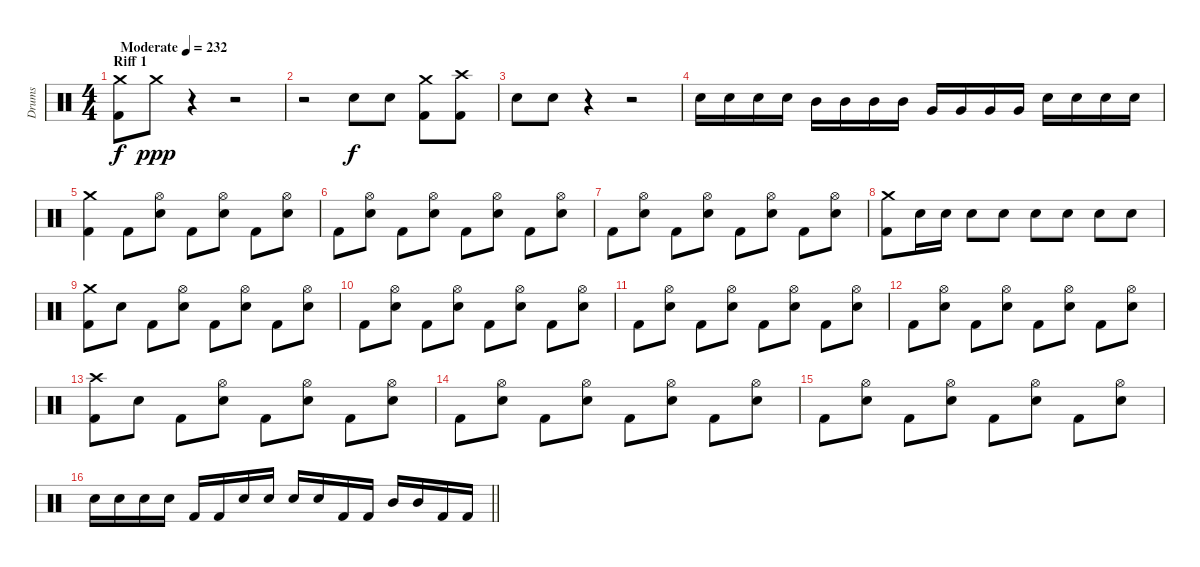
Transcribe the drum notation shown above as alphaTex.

\track ("Drums" "Drums") {instrument percussion}
\staff {score}
\articulation defaults
\ts (4 4)
\section ("" "Riff 1")
\tempo (232 "Moderate")
\clef neutral
\ks c
("Crash medium (hit)" "Kick (hit) 2").8{dy f} "Crash medium (hit)".8{dy ppp} r.4 r.2 |
r.2 "Electric Snare (hit)".8{dy f} "Electric Snare (hit)".8 ("Crash medium (hit)" "Kick (hit) 2").8 ("Crash high (hit)" "Kick (hit) 2").8 |
"Electric Snare (hit)".8 "Electric Snare (hit)".8 r.4 r.2 |
"Electric Snare (hit)".16 "Electric Snare (hit)".16 "Electric Snare (hit)".16 "Electric Snare (hit)".16 "Mid Tom (hit)".16 "Mid Tom (hit)".16 "Mid Tom (hit)".16 "Mid Tom (hit)".16 "Very Low Tom (hit)".16 "Very Low Tom (hit)".16 "Very Low Tom (hit)".16 "Very Low Tom (hit)".16 "Electric Snare (hit)".16 "Electric Snare (hit)".16 "Electric Snare (hit)".16 "Electric Snare (hit)".16 |
("Kick (hit) 2" "Crash medium (hit)").4 "Kick (hit) 2".8 ("Electric Snare (hit)" "Hi-Hat (open)").8 "Kick (hit) 2".8 ("Electric Snare (hit)" "Hi-Hat (open)").8 "Kick (hit) 2".8 ("Electric Snare (hit)" "Hi-Hat (open)").8 |
"Kick (hit) 2".8 ("Electric Snare (hit)" "Hi-Hat (open)").8 "Kick (hit) 2".8 ("Electric Snare (hit)" "Hi-Hat (open)").8 "Kick (hit) 2".8 ("Electric Snare (hit)" "Hi-Hat (open)").8 "Kick (hit) 2".8 ("Electric Snare (hit)" "Hi-Hat (open)").8 |
"Kick (hit) 2".8 ("Electric Snare (hit)" "Hi-Hat (open)").8 "Kick (hit) 2".8 ("Electric Snare (hit)" "Hi-Hat (open)").8 "Kick (hit) 2".8 ("Electric Snare (hit)" "Hi-Hat (open)").8 "Kick (hit) 2".8 ("Electric Snare (hit)" "Hi-Hat (open)").8 |
("Kick (hit) 2" "Crash medium (hit)").8 "Electric Snare (hit)".16 "Electric Snare (hit)".16 "Electric Snare (hit)".8 "Electric Snare (hit)".8 "Electric Snare (hit)".8 "Electric Snare (hit)".8 "Electric Snare (hit)".8 "Electric Snare (hit)".8 |
("Kick (hit) 2" "Crash medium (hit)").8 "Electric Snare (hit)".8 "Kick (hit) 2".8 ("Electric Snare (hit)" "Hi-Hat (open)").8 "Kick (hit) 2".8 ("Electric Snare (hit)" "Hi-Hat (open)").8 "Kick (hit) 2".8 ("Electric Snare (hit)" "Hi-Hat (open)").8 |
"Kick (hit) 2".8 ("Electric Snare (hit)" "Hi-Hat (open)").8 "Kick (hit) 2".8 ("Electric Snare (hit)" "Hi-Hat (open)").8 "Kick (hit) 2".8 ("Electric Snare (hit)" "Hi-Hat (open)").8 "Kick (hit) 2".8 ("Electric Snare (hit)" "Hi-Hat (open)").8 |
"Kick (hit) 2".8 ("Electric Snare (hit)" "Hi-Hat (open)").8 "Kick (hit) 2".8 ("Electric Snare (hit)" "Hi-Hat (open)").8 "Kick (hit) 2".8 ("Electric Snare (hit)" "Hi-Hat (open)").8 "Kick (hit) 2".8 ("Electric Snare (hit)" "Hi-Hat (open)").8 |
"Kick (hit) 2".8 ("Electric Snare (hit)" "Hi-Hat (open)").8 "Kick (hit) 2".8 ("Electric Snare (hit)" "Hi-Hat (open)").8 "Kick (hit) 2".8 ("Electric Snare (hit)" "Hi-Hat (open)").8 "Kick (hit) 2".8 ("Electric Snare (hit)" "Hi-Hat (open)").8 |
("Kick (hit) 2" "Crash high (hit)").8 "Electric Snare (hit)".8 "Kick (hit) 2".8 ("Electric Snare (hit)" "Hi-Hat (open)").8 "Kick (hit) 2".8 ("Electric Snare (hit)" "Hi-Hat (open)").8 "Kick (hit) 2".8 ("Electric Snare (hit)" "Hi-Hat (open)").8 |
"Kick (hit) 2".8 ("Electric Snare (hit)" "Hi-Hat (open)").8 "Kick (hit) 2".8 ("Electric Snare (hit)" "Hi-Hat (open)").8 "Kick (hit) 2".8 ("Electric Snare (hit)" "Hi-Hat (open)").8 "Kick (hit) 2".8 ("Electric Snare (hit)" "Hi-Hat (open)").8 |
"Kick (hit) 2".8 ("Electric Snare (hit)" "Hi-Hat (open)").8 "Kick (hit) 2".8 ("Electric Snare (hit)" "Hi-Hat (open)").8 "Kick (hit) 2".8 ("Electric Snare (hit)" "Hi-Hat (open)").8 "Kick (hit) 2".8 ("Electric Snare (hit)" "Hi-Hat (open)").8 |
\barLineRight lightlight "Electric Snare (hit)".16 "Electric Snare (hit)".16 "Electric Snare (hit)".16 "Electric Snare (hit)".16 "Kick (hit) 2".16 "Kick (hit) 2".16 "Electric Snare (hit)".16 "Electric Snare (hit)".16 "Electric Snare (hit)".16 "Electric Snare (hit)".16 "Kick (hit) 2".16 "Kick (hit) 2".16 "Mid Tom (hit)".16 "Mid Tom (hit)".16 "Kick (hit) 2".16 "Kick (hit) 2".16
